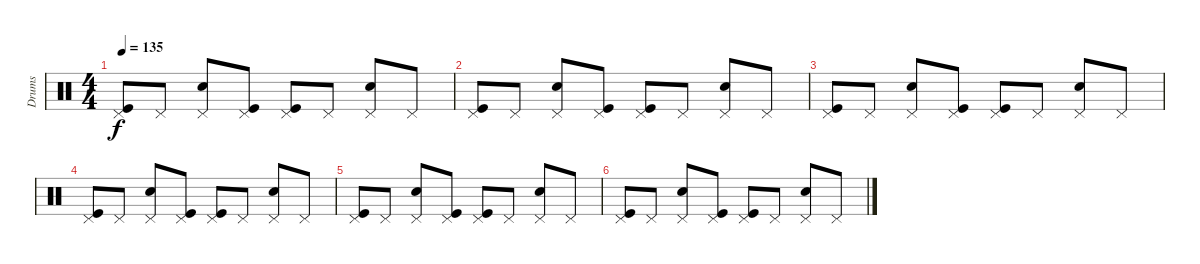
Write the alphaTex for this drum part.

\track ("Drums" "Drums") {instrument percussion}
\staff {score}
\articulation defaults
\ts (4 4)
\tempo 135
\clef neutral
\ks c
("Pedal Hi-Hat (hit)" "Kick (hit)").8{dy f} "Pedal Hi-Hat (hit)".8 ("Pedal Hi-Hat (hit)" "Electric Snare (hit)").8 ("Pedal Hi-Hat (hit)" "Kick (hit)").8 ("Pedal Hi-Hat (hit)" "Kick (hit)").8 "Pedal Hi-Hat (hit)".8 ("Pedal Hi-Hat (hit)" "Electric Snare (hit)").8 "Pedal Hi-Hat (hit)".8 |
("Pedal Hi-Hat (hit)" "Kick (hit)").8 "Pedal Hi-Hat (hit)".8 ("Pedal Hi-Hat (hit)" "Electric Snare (hit)").8 ("Pedal Hi-Hat (hit)" "Kick (hit)").8 ("Pedal Hi-Hat (hit)" "Kick (hit)").8 "Pedal Hi-Hat (hit)".8 ("Pedal Hi-Hat (hit)" "Electric Snare (hit)").8 "Pedal Hi-Hat (hit)".8 |
("Pedal Hi-Hat (hit)" "Kick (hit)").8 "Pedal Hi-Hat (hit)".8 ("Pedal Hi-Hat (hit)" "Electric Snare (hit)").8 ("Pedal Hi-Hat (hit)" "Kick (hit)").8 ("Pedal Hi-Hat (hit)" "Kick (hit)").8 "Pedal Hi-Hat (hit)".8 ("Pedal Hi-Hat (hit)" "Electric Snare (hit)").8 "Pedal Hi-Hat (hit)".8 |
("Pedal Hi-Hat (hit)" "Kick (hit)").8 "Pedal Hi-Hat (hit)".8 ("Pedal Hi-Hat (hit)" "Electric Snare (hit)").8 ("Pedal Hi-Hat (hit)" "Kick (hit)").8 ("Pedal Hi-Hat (hit)" "Kick (hit)").8 "Pedal Hi-Hat (hit)".8 ("Pedal Hi-Hat (hit)" "Electric Snare (hit)").8 "Pedal Hi-Hat (hit)".8 |
("Pedal Hi-Hat (hit)" "Kick (hit)").8 "Pedal Hi-Hat (hit)".8 ("Pedal Hi-Hat (hit)" "Electric Snare (hit)").8 ("Pedal Hi-Hat (hit)" "Kick (hit)").8 ("Pedal Hi-Hat (hit)" "Kick (hit)").8 "Pedal Hi-Hat (hit)".8 ("Pedal Hi-Hat (hit)" "Electric Snare (hit)").8 "Pedal Hi-Hat (hit)".8 |
("Pedal Hi-Hat (hit)" "Kick (hit)").8 "Pedal Hi-Hat (hit)".8 ("Pedal Hi-Hat (hit)" "Electric Snare (hit)").8 ("Pedal Hi-Hat (hit)" "Kick (hit)").8 ("Pedal Hi-Hat (hit)" "Kick (hit)").8 "Pedal Hi-Hat (hit)".8 ("Pedal Hi-Hat (hit)" "Electric Snare (hit)").8 "Pedal Hi-Hat (hit)".8
